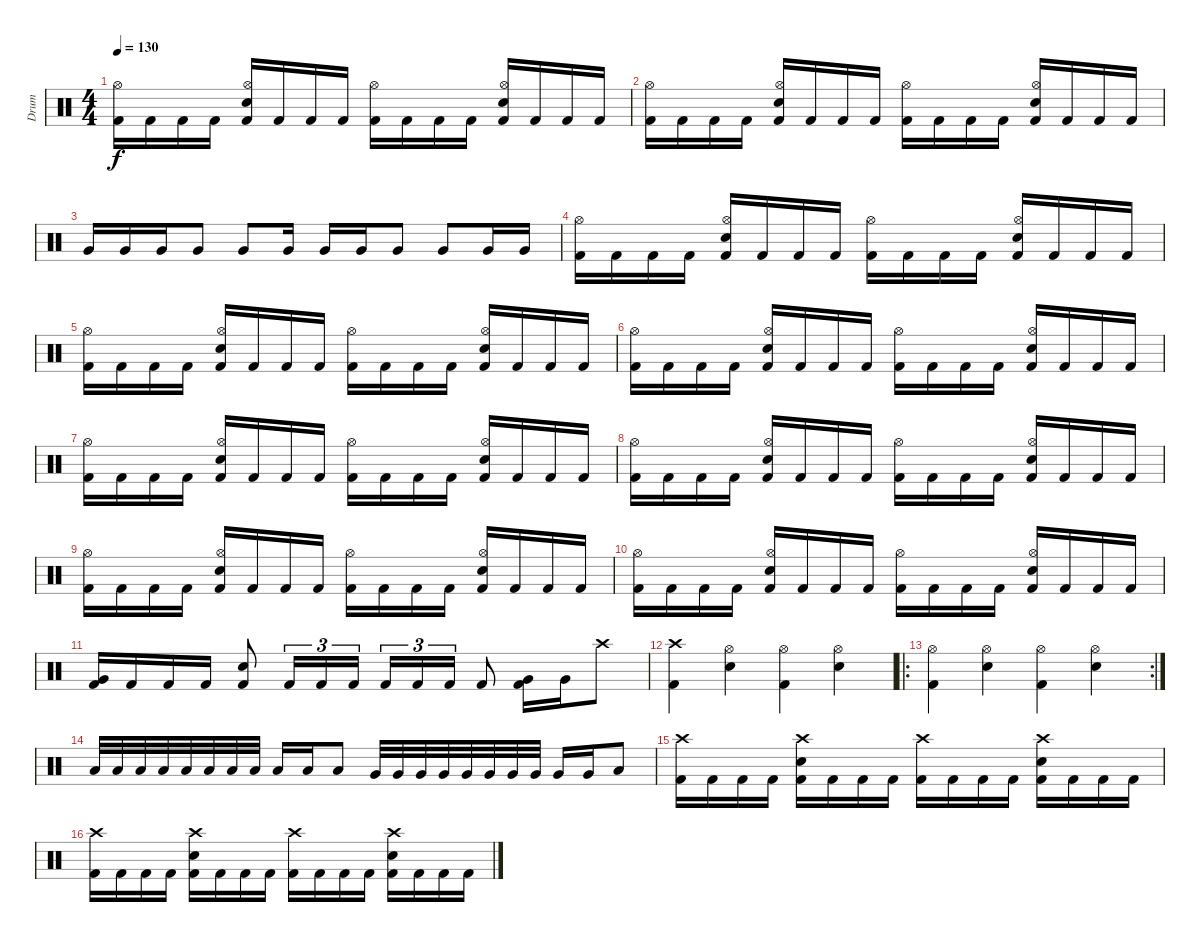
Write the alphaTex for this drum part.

\track ("Drum" "Drum") {instrument percussion}
\staff {score}
\articulation defaults
\ts (4 4)
\tempo 130
\clef neutral
\ks c
("Kick (hit) 2" "Hi-Hat (open)").16{dy f} "Kick (hit) 2".16 "Kick (hit) 2".16 "Kick (hit) 2".16 ("Kick (hit) 2" "Electric Snare (hit)" "Hi-Hat (open)").16 "Kick (hit) 2".16 "Kick (hit) 2".16 "Kick (hit) 2".16 ("Kick (hit) 2" "Hi-Hat (open)").16 "Kick (hit) 2".16 "Kick (hit) 2".16 "Kick (hit) 2".16 ("Kick (hit) 2" "Electric Snare (hit)" "Hi-Hat (open)").16 "Kick (hit) 2".16 "Kick (hit) 2".16 "Kick (hit) 2".16 |
("Kick (hit) 2" "Hi-Hat (open)").16 "Kick (hit) 2".16 "Kick (hit) 2".16 "Kick (hit) 2".16 ("Kick (hit) 2" "Electric Snare (hit)" "Hi-Hat (open)").16 "Kick (hit) 2".16 "Kick (hit) 2".16 "Kick (hit) 2".16 ("Kick (hit) 2" "Hi-Hat (open)").16 "Kick (hit) 2".16 "Kick (hit) 2".16 "Kick (hit) 2".16 ("Kick (hit) 2" "Electric Snare (hit)" "Hi-Hat (open)").16 "Kick (hit) 2".16 "Kick (hit) 2".16 "Kick (hit) 2".16 |
"Very Low Tom (hit)".16 "Very Low Tom (hit)".16 "Very Low Tom (hit)".16 "Very Low Tom (hit)".8 "Very Low Tom (hit)".8 "Very Low Tom (hit)".16 "Very Low Tom (hit)".16 "Very Low Tom (hit)".16 "Very Low Tom (hit)".8 "Very Low Tom (hit)".8 "Very Low Tom (hit)".16 "Very Low Tom (hit)".16 |
("Kick (hit) 2" "Hi-Hat (open)").16 "Kick (hit) 2".16 "Kick (hit) 2".16 "Kick (hit) 2".16 ("Kick (hit) 2" "Electric Snare (hit)" "Hi-Hat (open)").16 "Kick (hit) 2".16 "Kick (hit) 2".16 "Kick (hit) 2".16 ("Kick (hit) 2" "Hi-Hat (open)").16 "Kick (hit) 2".16 "Kick (hit) 2".16 "Kick (hit) 2".16 ("Kick (hit) 2" "Electric Snare (hit)" "Hi-Hat (open)").16 "Kick (hit) 2".16 "Kick (hit) 2".16 "Kick (hit) 2".16 |
("Kick (hit) 2" "Hi-Hat (open)").16 "Kick (hit) 2".16 "Kick (hit) 2".16 "Kick (hit) 2".16 ("Kick (hit) 2" "Electric Snare (hit)" "Hi-Hat (open)").16 "Kick (hit) 2".16 "Kick (hit) 2".16 "Kick (hit) 2".16 ("Kick (hit) 2" "Hi-Hat (open)").16 "Kick (hit) 2".16 "Kick (hit) 2".16 "Kick (hit) 2".16 ("Kick (hit) 2" "Electric Snare (hit)" "Hi-Hat (open)").16 "Kick (hit) 2".16 "Kick (hit) 2".16 "Kick (hit) 2".16 |
("Kick (hit) 2" "Hi-Hat (open)").16 "Kick (hit) 2".16 "Kick (hit) 2".16 "Kick (hit) 2".16 ("Kick (hit) 2" "Electric Snare (hit)" "Hi-Hat (open)").16 "Kick (hit) 2".16 "Kick (hit) 2".16 "Kick (hit) 2".16 ("Kick (hit) 2" "Hi-Hat (open)").16 "Kick (hit) 2".16 "Kick (hit) 2".16 "Kick (hit) 2".16 ("Kick (hit) 2" "Electric Snare (hit)" "Hi-Hat (open)").16 "Kick (hit) 2".16 "Kick (hit) 2".16 "Kick (hit) 2".16 |
("Kick (hit) 2" "Hi-Hat (open)").16 "Kick (hit) 2".16 "Kick (hit) 2".16 "Kick (hit) 2".16 ("Kick (hit) 2" "Electric Snare (hit)" "Hi-Hat (open)").16 "Kick (hit) 2".16 "Kick (hit) 2".16 "Kick (hit) 2".16 ("Kick (hit) 2" "Hi-Hat (open)").16 "Kick (hit) 2".16 "Kick (hit) 2".16 "Kick (hit) 2".16 ("Kick (hit) 2" "Electric Snare (hit)" "Hi-Hat (open)").16 "Kick (hit) 2".16 "Kick (hit) 2".16 "Kick (hit) 2".16 |
("Kick (hit) 2" "Hi-Hat (open)").16 "Kick (hit) 2".16 "Kick (hit) 2".16 "Kick (hit) 2".16 ("Kick (hit) 2" "Electric Snare (hit)" "Hi-Hat (open)").16 "Kick (hit) 2".16 "Kick (hit) 2".16 "Kick (hit) 2".16 ("Kick (hit) 2" "Hi-Hat (open)").16 "Kick (hit) 2".16 "Kick (hit) 2".16 "Kick (hit) 2".16 ("Kick (hit) 2" "Electric Snare (hit)" "Hi-Hat (open)").16 "Kick (hit) 2".16 "Kick (hit) 2".16 "Kick (hit) 2".16 |
("Kick (hit) 2" "Hi-Hat (open)").16 "Kick (hit) 2".16 "Kick (hit) 2".16 "Kick (hit) 2".16 ("Kick (hit) 2" "Electric Snare (hit)" "Hi-Hat (open)").16 "Kick (hit) 2".16 "Kick (hit) 2".16 "Kick (hit) 2".16 ("Kick (hit) 2" "Hi-Hat (open)").16 "Kick (hit) 2".16 "Kick (hit) 2".16 "Kick (hit) 2".16 ("Kick (hit) 2" "Electric Snare (hit)" "Hi-Hat (open)").16 "Kick (hit) 2".16 "Kick (hit) 2".16 "Kick (hit) 2".16 |
("Kick (hit) 2" "Hi-Hat (open)").16 "Kick (hit) 2".16 "Kick (hit) 2".16 "Kick (hit) 2".16 ("Kick (hit) 2" "Electric Snare (hit)" "Hi-Hat (open)").16 "Kick (hit) 2".16 "Kick (hit) 2".16 "Kick (hit) 2".16 ("Kick (hit) 2" "Hi-Hat (open)").16 "Kick (hit) 2".16 "Kick (hit) 2".16 "Kick (hit) 2".16 ("Kick (hit) 2" "Electric Snare (hit)" "Hi-Hat (open)").16 "Kick (hit) 2".16 "Kick (hit) 2".16 "Kick (hit) 2".16 |
("Kick (hit) 2" "Very Low Tom (hit)").16 "Kick (hit) 2".16 "Kick (hit) 2".16 "Kick (hit) 2".16 ("Kick (hit) 2" "Electric Snare (hit)").8 "Kick (hit) 2".16{tu (3 2)} "Kick (hit) 2".16{tu (3 2)} "Kick (hit) 2".16{tu (3 2)} "Kick (hit) 2".16{tu (3 2)} "Kick (hit) 2".16{tu (3 2)} "Kick (hit) 2".16{tu (3 2)} "Kick (hit) 2".8 ("Kick (hit) 2" "Very Low Tom (hit)").16 "Very Low Tom (hit)".16 "Crash high (hit)".8 |
("Kick (hit) 2" "Crash high (hit)").4 ("Electric Snare (hit)" "Hi-Hat (open)").4 ("Kick (hit) 2" "Hi-Hat (open)").4 ("Electric Snare (hit)" "Hi-Hat (open)").4 |
\ro
\rc 2
("Kick (hit) 2" "Hi-Hat (open)").4 ("Electric Snare (hit)" "Hi-Hat (open)").4 ("Kick (hit) 2" "Hi-Hat (open)").4 ("Electric Snare (hit)" "Hi-Hat (open)").4 |
"Low Tom (hit)".32 "Low Tom (hit)".32 "Low Tom (hit)".32 "Low Tom (hit)".32 "Low Tom (hit)".32 "Low Tom (hit)".32 "Low Tom (hit)".32 "Low Tom (hit)".32 "Low Tom (hit)".16 "Low Tom (hit)".16 "Low Tom (hit)".8 "Very Low Tom (hit)".32 "Very Low Tom (hit)".32 "Very Low Tom (hit)".32 "Very Low Tom (hit)".32 "Very Low Tom (hit)".32 "Very Low Tom (hit)".32 "Very Low Tom (hit)".32 "Very Low Tom (hit)".32 "Very Low Tom (hit)".16 "Very Low Tom (hit)".16 "Low Tom (hit)".8 |
("Kick (hit) 2" "Crash high (hit)").16 "Kick (hit) 2".16 "Kick (hit) 2".16 "Kick (hit) 2".16 ("Kick (hit) 2" "Electric Snare (hit)" "Crash high (hit)").16 "Kick (hit) 2".16 "Kick (hit) 2".16 "Kick (hit) 2".16 ("Kick (hit) 2" "Crash high (hit)").16 "Kick (hit) 2".16 "Kick (hit) 2".16 "Kick (hit) 2".16 ("Kick (hit) 2" "Electric Snare (hit)" "Crash high (hit)").16 "Kick (hit) 2".16 "Kick (hit) 2".16 "Kick (hit) 2".16 |
("Kick (hit) 2" "Crash high (hit)").16 "Kick (hit) 2".16 "Kick (hit) 2".16 "Kick (hit) 2".16 ("Kick (hit) 2" "Electric Snare (hit)" "Crash high (hit)").16 "Kick (hit) 2".16 "Kick (hit) 2".16 "Kick (hit) 2".16 ("Kick (hit) 2" "Crash high (hit)").16 "Kick (hit) 2".16 "Kick (hit) 2".16 "Kick (hit) 2".16 ("Kick (hit) 2" "Electric Snare (hit)" "Crash high (hit)").16 "Kick (hit) 2".16 "Kick (hit) 2".16 "Kick (hit) 2".16
